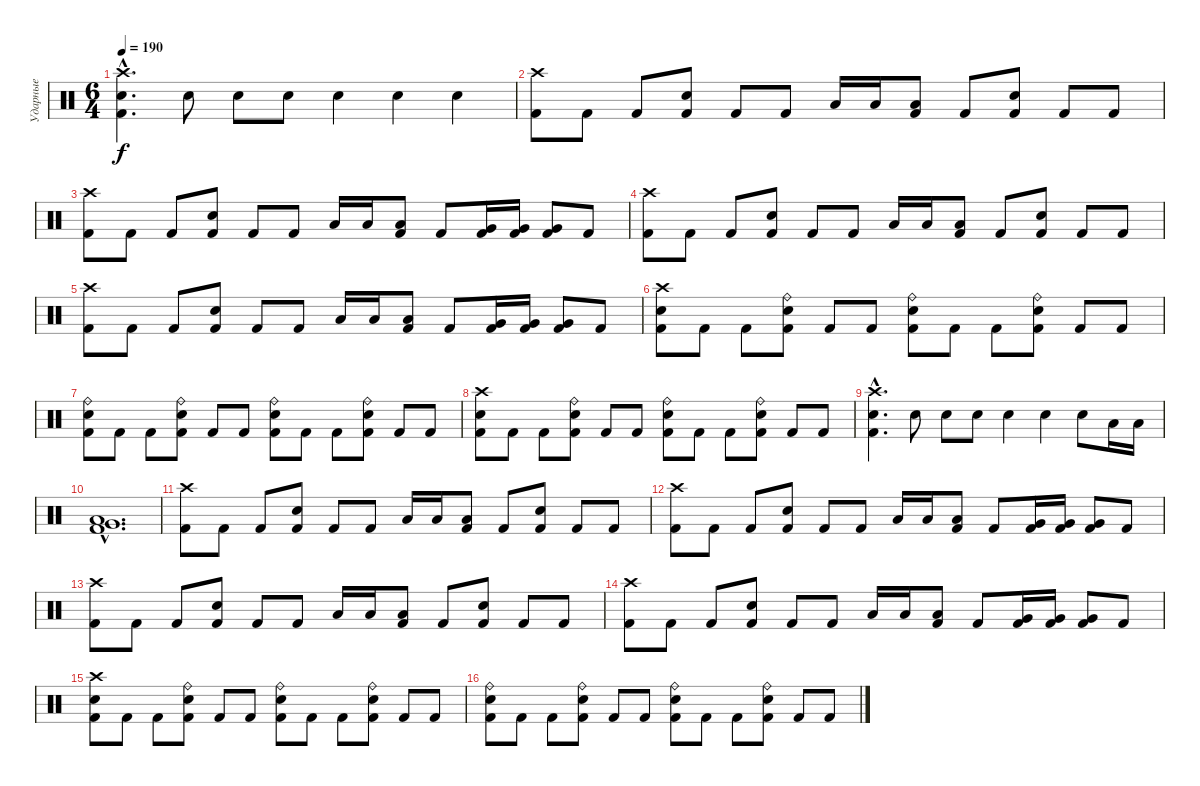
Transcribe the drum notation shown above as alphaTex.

\track ("Ударные" "Ударные") {instrument percussion}
\staff {score}
\articulation defaults
\ts (6 4)
\tempo 190
\clef neutral
\ks c
("Crash high (hit)"{hac} "Electric Snare (hit)"{hac} "Kick (hit) 2"{hac}).4{d dy f} "Electric Snare (hit)".8 "Electric Snare (hit)".8 "Electric Snare (hit)".8 "Electric Snare (hit)".4 "Electric Snare (hit)".4 "Electric Snare (hit)".4 |
("Crash high (hit)" "Kick (hit) 2").8 "Kick (hit) 2".8 "Kick (hit) 2".8 ("Electric Snare (hit)" "Kick (hit) 2").8 "Kick (hit) 2".8 "Kick (hit) 2".8 "Low Tom (hit)".16 "Low Tom (hit)".16 ("Low Tom (hit)" "Kick (hit) 2").8 "Kick (hit) 2".8 ("Electric Snare (hit)" "Kick (hit) 2").8 "Kick (hit) 2".8 "Kick (hit) 2".8 |
("Crash high (hit)" "Kick (hit) 2").8 "Kick (hit) 2".8 "Kick (hit) 2".8 ("Electric Snare (hit)" "Kick (hit) 2").8 "Kick (hit) 2".8 "Kick (hit) 2".8 "Low Tom (hit)".16 "Low Tom (hit)".16 ("Low Tom (hit)" "Kick (hit) 2").8 "Kick (hit) 2".8 ("Very Low Tom (hit)" "Kick (hit) 2").16 ("Very Low Tom (hit)" "Kick (hit) 2").16 ("Very Low Tom (hit)" "Kick (hit) 2").8 "Kick (hit) 2".8 |
("Crash high (hit)" "Kick (hit) 2").8 "Kick (hit) 2".8 "Kick (hit) 2".8 ("Electric Snare (hit)" "Kick (hit) 2").8 "Kick (hit) 2".8 "Kick (hit) 2".8 "Low Tom (hit)".16 "Low Tom (hit)".16 ("Low Tom (hit)" "Kick (hit) 2").8 "Kick (hit) 2".8 ("Electric Snare (hit)" "Kick (hit) 2").8 "Kick (hit) 2".8 "Kick (hit) 2".8 |
("Crash high (hit)" "Kick (hit) 2").8 "Kick (hit) 2".8 "Kick (hit) 2".8 ("Electric Snare (hit)" "Kick (hit) 2").8 "Kick (hit) 2".8 "Kick (hit) 2".8 "Low Tom (hit)".16 "Low Tom (hit)".16 ("Low Tom (hit)" "Kick (hit) 2").8 "Kick (hit) 2".8 ("Very Low Tom (hit)" "Kick (hit) 2").16 ("Very Low Tom (hit)" "Kick (hit) 2").16 ("Very Low Tom (hit)" "Kick (hit) 2").8 "Kick (hit) 2".8 |
("Crash high (hit)" "Electric Snare (hit)" "Kick (hit) 2").8 "Kick (hit) 2".8 "Kick (hit) 2".8 ("Ride (bell)" "Electric Snare (hit)" "Kick (hit) 2").8 "Kick (hit) 2".8 "Kick (hit) 2".8 ("Ride (bell)" "Electric Snare (hit)" "Kick (hit) 2").8 "Kick (hit) 2".8 "Kick (hit) 2".8 ("Ride (bell)" "Electric Snare (hit)" "Kick (hit) 2").8 "Kick (hit) 2".8 "Kick (hit) 2".8 |
("Ride (bell)" "Electric Snare (hit)" "Kick (hit) 2").8 "Kick (hit) 2".8 "Kick (hit) 2".8 ("Ride (bell)" "Electric Snare (hit)" "Kick (hit) 2").8 "Kick (hit) 2".8 "Kick (hit) 2".8 ("Ride (bell)" "Electric Snare (hit)" "Kick (hit) 2").8 "Kick (hit) 2".8 "Kick (hit) 2".8 ("Ride (bell)" "Electric Snare (hit)" "Kick (hit) 2").8 "Kick (hit) 2".8 "Kick (hit) 2".8 |
("Crash high (hit)" "Electric Snare (hit)" "Kick (hit) 2").8 "Kick (hit) 2".8 "Kick (hit) 2".8 ("Ride (bell)" "Electric Snare (hit)" "Kick (hit) 2").8 "Kick (hit) 2".8 "Kick (hit) 2".8 ("Ride (bell)" "Electric Snare (hit)" "Kick (hit) 2").8 "Kick (hit) 2".8 "Kick (hit) 2".8 ("Ride (bell)" "Electric Snare (hit)" "Kick (hit) 2").8 "Kick (hit) 2".8 "Kick (hit) 2".8 |
("Crash high (hit)"{hac} "Electric Snare (hit)"{hac} "Kick (hit) 2"{hac}).4{d} "Electric Snare (hit)".8 "Electric Snare (hit)".8 "Electric Snare (hit)".8 "Electric Snare (hit)".4 "Electric Snare (hit)".4 "Electric Snare (hit)".8 "Low Tom (hit)".16 "Low Tom (hit)".16 |
("Low Tom (hit)"{hac} "Very Low Tom (hit)"{hac} "Kick (hit) 2"{hac}).1{d} |
("Crash high (hit)" "Kick (hit) 2").8 "Kick (hit) 2".8 "Kick (hit) 2".8 ("Electric Snare (hit)" "Kick (hit) 2").8 "Kick (hit) 2".8 "Kick (hit) 2".8 "Low Tom (hit)".16 "Low Tom (hit)".16 ("Low Tom (hit)" "Kick (hit) 2").8 "Kick (hit) 2".8 ("Electric Snare (hit)" "Kick (hit) 2").8 "Kick (hit) 2".8 "Kick (hit) 2".8 |
("Crash high (hit)" "Kick (hit) 2").8 "Kick (hit) 2".8 "Kick (hit) 2".8 ("Electric Snare (hit)" "Kick (hit) 2").8 "Kick (hit) 2".8 "Kick (hit) 2".8 "Low Tom (hit)".16 "Low Tom (hit)".16 ("Low Tom (hit)" "Kick (hit) 2").8 "Kick (hit) 2".8 ("Very Low Tom (hit)" "Kick (hit) 2").16 ("Very Low Tom (hit)" "Kick (hit) 2").16 ("Very Low Tom (hit)" "Kick (hit) 2").8 "Kick (hit) 2".8 |
("Crash high (hit)" "Kick (hit) 2").8 "Kick (hit) 2".8 "Kick (hit) 2".8 ("Electric Snare (hit)" "Kick (hit) 2").8 "Kick (hit) 2".8 "Kick (hit) 2".8 "Low Tom (hit)".16 "Low Tom (hit)".16 ("Low Tom (hit)" "Kick (hit) 2").8 "Kick (hit) 2".8 ("Electric Snare (hit)" "Kick (hit) 2").8 "Kick (hit) 2".8 "Kick (hit) 2".8 |
("Crash high (hit)" "Kick (hit) 2").8 "Kick (hit) 2".8 "Kick (hit) 2".8 ("Electric Snare (hit)" "Kick (hit) 2").8 "Kick (hit) 2".8 "Kick (hit) 2".8 "Low Tom (hit)".16 "Low Tom (hit)".16 ("Low Tom (hit)" "Kick (hit) 2").8 "Kick (hit) 2".8 ("Very Low Tom (hit)" "Kick (hit) 2").16 ("Very Low Tom (hit)" "Kick (hit) 2").16 ("Very Low Tom (hit)" "Kick (hit) 2").8 "Kick (hit) 2".8 |
("Crash high (hit)" "Electric Snare (hit)" "Kick (hit) 2").8 "Kick (hit) 2".8 "Kick (hit) 2".8 ("Ride (bell)" "Electric Snare (hit)" "Kick (hit) 2").8 "Kick (hit) 2".8 "Kick (hit) 2".8 ("Ride (bell)" "Electric Snare (hit)" "Kick (hit) 2").8 "Kick (hit) 2".8 "Kick (hit) 2".8 ("Ride (bell)" "Electric Snare (hit)" "Kick (hit) 2").8 "Kick (hit) 2".8 "Kick (hit) 2".8 |
("Ride (bell)" "Electric Snare (hit)" "Kick (hit) 2").8 "Kick (hit) 2".8 "Kick (hit) 2".8 ("Ride (bell)" "Electric Snare (hit)" "Kick (hit) 2").8 "Kick (hit) 2".8 "Kick (hit) 2".8 ("Ride (bell)" "Electric Snare (hit)" "Kick (hit) 2").8 "Kick (hit) 2".8 "Kick (hit) 2".8 ("Ride (bell)" "Electric Snare (hit)" "Kick (hit) 2").8 "Kick (hit) 2".8 "Kick (hit) 2".8
